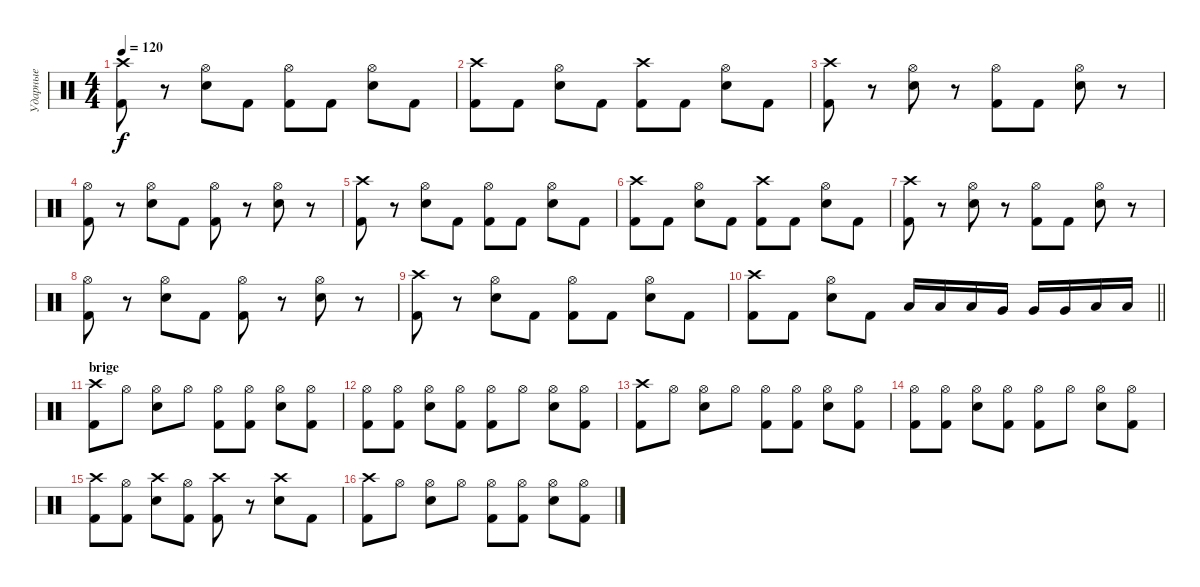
\track ("Ударные" "Ударные") {instrument percussion}
\staff {score}
\articulation defaults
\ts (4 4)
\tempo 120
\clef neutral
\ks c
("Crash high (hit)" "Kick (hit) 2").8{dy f} r.8 ("Hi-Hat (open)" "Snare (hit) 2").8 "Kick (hit) 2".8 ("Hi-Hat (open)" "Kick (hit) 2").8 "Kick (hit) 2".8 ("Hi-Hat (open)" "Snare (hit) 2").8 "Kick (hit) 2".8 |
("Crash high (hit)" "Kick (hit) 2").8 "Kick (hit) 2".8 ("Hi-Hat (open)" "Snare (hit) 2").8 "Kick (hit) 2".8 ("Crash high (hit)" "Kick (hit) 2").8 "Kick (hit) 2".8 ("Hi-Hat (open)" "Snare (hit) 2").8 "Kick (hit) 2".8 |
("Crash high (hit)" "Kick (hit) 2").8 r.8 ("Hi-Hat (open)" "Snare (hit) 2").8 r.8 ("Hi-Hat (open)" "Kick (hit) 2").8 "Kick (hit) 2".8 ("Hi-Hat (open)" "Snare (hit) 2").8 r.8 |
("Hi-Hat (open)" "Kick (hit) 2").8 r.8 ("Hi-Hat (open)" "Snare (hit) 2").8 "Kick (hit) 2".8 ("Hi-Hat (open)" "Kick (hit) 2").8 r.8 ("Hi-Hat (open)" "Snare (hit) 2").8 r.8 |
("Crash high (hit)" "Kick (hit) 2").8 r.8 ("Hi-Hat (open)" "Snare (hit) 2").8 "Kick (hit) 2".8 ("Hi-Hat (open)" "Kick (hit) 2").8 "Kick (hit) 2".8 ("Hi-Hat (open)" "Snare (hit) 2").8 "Kick (hit) 2".8 |
("Crash high (hit)" "Kick (hit) 2").8 "Kick (hit) 2".8 ("Hi-Hat (open)" "Snare (hit) 2").8 "Kick (hit) 2".8 ("Crash high (hit)" "Kick (hit) 2").8 "Kick (hit) 2".8 ("Hi-Hat (open)" "Snare (hit) 2").8 "Kick (hit) 2".8 |
("Crash high (hit)" "Kick (hit) 2").8 r.8 ("Hi-Hat (open)" "Snare (hit) 2").8 r.8 ("Hi-Hat (open)" "Kick (hit) 2").8 "Kick (hit) 2".8 ("Hi-Hat (open)" "Snare (hit) 2").8 r.8 |
("Hi-Hat (open)" "Kick (hit) 2").8 r.8 ("Hi-Hat (open)" "Snare (hit) 2").8 "Kick (hit) 2".8 ("Hi-Hat (open)" "Kick (hit) 2").8 r.8 ("Hi-Hat (open)" "Snare (hit) 2").8 r.8 |
("Crash high (hit)" "Kick (hit) 2").8 r.8 ("Hi-Hat (open)" "Snare (hit) 2").8 "Kick (hit) 2".8 ("Hi-Hat (open)" "Kick (hit) 2").8 "Kick (hit) 2".8 ("Hi-Hat (open)" "Snare (hit) 2").8 "Kick (hit) 2".8 |
\barLineRight lightlight
("Crash high (hit)" "Kick (hit) 2").8 "Kick (hit) 2".8 ("Hi-Hat (open)" "Snare (hit) 2").8 "Kick (hit) 2".8 "Low Tom (hit)".16 "Low Tom (hit)".16 "Low Tom (hit)".16 "Very Low Tom (hit)".16 "Very Low Tom (hit)".16 "Very Low Tom (hit)".16 "Low Floor Tom (hit)".16 "Low Floor Tom (hit)".16 |
\section ("" "brige")
("Crash high (hit)" "Kick (hit) 2").8 "Hi-Hat (open)".8 ("Hi-Hat (open)" "Snare (hit) 2").8 "Hi-Hat (open)".8 ("Hi-Hat (open)" "Kick (hit) 2").8 ("Hi-Hat (open)" "Kick (hit) 2").8 ("Hi-Hat (open)" "Snare (hit) 2").8 ("Hi-Hat (open)" "Kick (hit) 2").8 |
("Hi-Hat (open)" "Kick (hit) 2").8 ("Hi-Hat (open)" "Kick (hit) 2").8 ("Hi-Hat (open)" "Snare (hit) 2").8 ("Hi-Hat (open)" "Kick (hit) 2").8 ("Hi-Hat (open)" "Kick (hit) 2").8 "Hi-Hat (open)".8 ("Hi-Hat (open)" "Snare (hit) 2").8 ("Hi-Hat (open)" "Kick (hit) 2").8 |
("Crash high (hit)" "Kick (hit) 2").8 "Hi-Hat (open)".8 ("Hi-Hat (open)" "Snare (hit) 2").8 "Hi-Hat (open)".8 ("Hi-Hat (open)" "Kick (hit) 2").8 ("Hi-Hat (open)" "Kick (hit) 2").8 ("Hi-Hat (open)" "Snare (hit) 2").8 ("Hi-Hat (open)" "Kick (hit) 2").8 |
("Hi-Hat (open)" "Kick (hit) 2").8 ("Hi-Hat (open)" "Kick (hit) 2").8 ("Hi-Hat (open)" "Snare (hit) 2").8 ("Hi-Hat (open)" "Kick (hit) 2").8 ("Hi-Hat (open)" "Kick (hit) 2").8 "Hi-Hat (open)".8 ("Hi-Hat (open)" "Snare (hit) 2").8 ("Hi-Hat (open)" "Kick (hit) 2").8 |
("Crash high (hit)" "Kick (hit) 2").8 ("Hi-Hat (open)" "Kick (hit) 2").8 ("Crash high (hit)" "Snare (hit) 2").8 ("Hi-Hat (open)" "Kick (hit) 2").8 ("Crash high (hit)" "Kick (hit) 2").8 r.8 ("Crash high (hit)" "Snare (hit) 2").8 "Kick (hit) 2".8 |
("Crash high (hit)" "Kick (hit) 2").8 "Hi-Hat (open)".8 ("Hi-Hat (open)" "Snare (hit) 2").8 "Hi-Hat (open)".8 ("Hi-Hat (open)" "Kick (hit) 2").8 ("Hi-Hat (open)" "Kick (hit) 2").8 ("Hi-Hat (open)" "Snare (hit) 2").8 ("Hi-Hat (open)" "Kick (hit) 2").8
